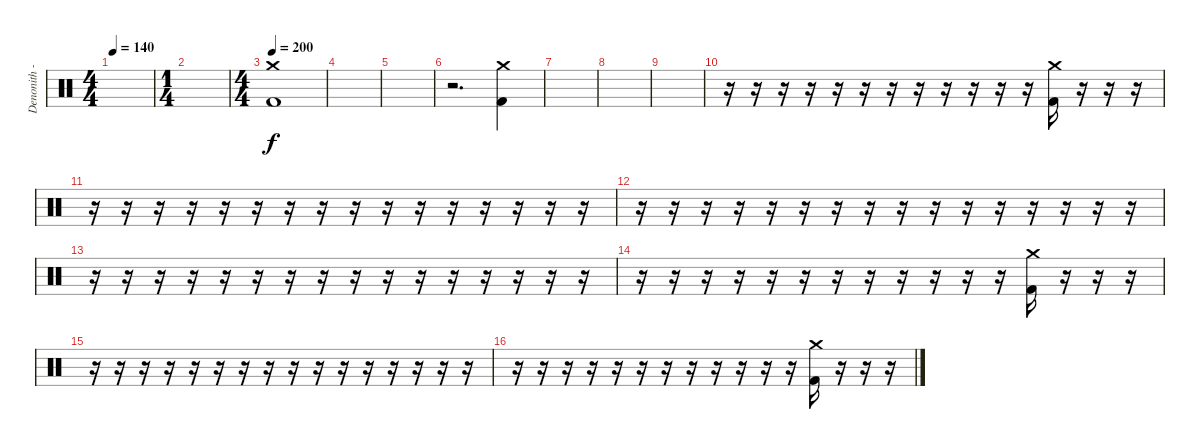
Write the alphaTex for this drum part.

\track ("Denonith - Spyros" "Denonith -") {instrument percussion}
\staff {score}
\articulation defaults
\ts (4 4)
\tempo 140
\clef neutral
\ks c
|
\ts (1 4)
|
\ts (4 4)
\tempo 200
("Crash medium (hit)" "Kick (hit) 2").1 |
|
|
r.2{d} ("Crash medium (hit)" "Kick (hit) 2").4 |
|
|
|
r.16 r.16 r.16 r.16 r.16 r.16 r.16 r.16 r.16 r.16 r.16 r.16 ("Crash medium (hit)" "Kick (hit) 2").16 r.16 r.16 r.16 |
r.16 r.16 r.16 r.16 r.16 r.16 r.16 r.16 r.16 r.16 r.16 r.16 r.16 r.16 r.16 r.16 |
r.16 r.16 r.16 r.16 r.16 r.16 r.16 r.16 r.16 r.16 r.16 r.16 r.16 r.16 r.16 r.16 |
r.16 r.16 r.16 r.16 r.16 r.16 r.16 r.16 r.16 r.16 r.16 r.16 r.16 r.16 r.16 r.16 |
r.16 r.16 r.16 r.16 r.16 r.16 r.16 r.16 r.16 r.16 r.16 r.16 ("Crash medium (hit)" "Kick (hit) 2").16 r.16 r.16 r.16 |
r.16 r.16 r.16 r.16 r.16 r.16 r.16 r.16 r.16 r.16 r.16 r.16 r.16 r.16 r.16 r.16 |
r.16 r.16 r.16 r.16 r.16 r.16 r.16 r.16 r.16 r.16 r.16 r.16 ("Crash medium (hit)" "Kick (hit) 2").16 r.16 r.16 r.16
